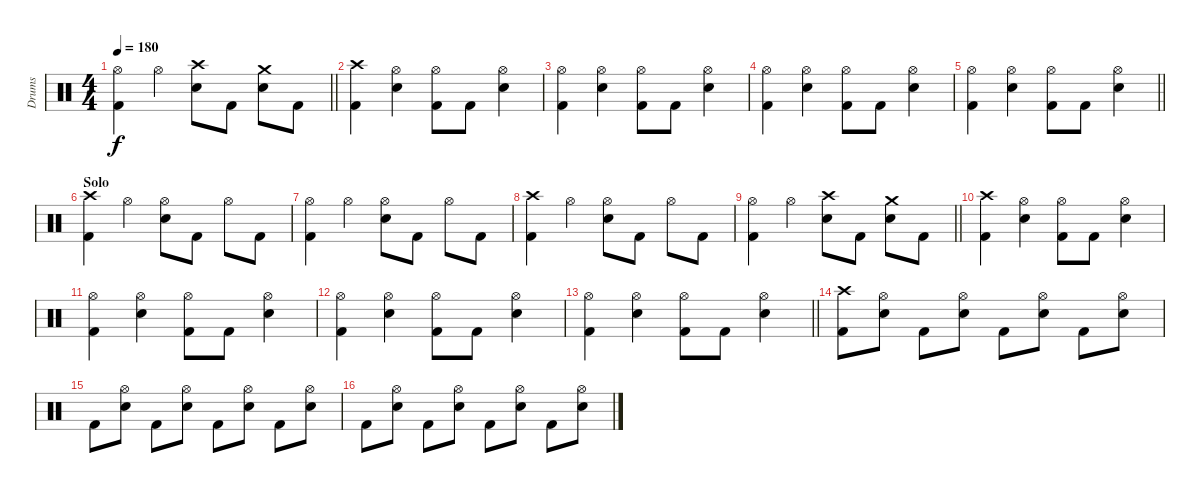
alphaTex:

\track ("Drums" "Drums") {instrument percussion}
\staff {score}
\articulation defaults
\ts (4 4)
\tempo 180
\clef neutral
\barLineRight lightlight
\ks c
("Kick (hit) 2" "Hi-Hat (open)").4{dy f} "Hi-Hat (open)".4 ("Electric Snare (hit)" "Crash high (hit)").8 "Kick (hit) 2".8 ("Electric Snare (hit)" "Crash medium (hit)").8 "Kick (hit) 2".8 |
\section ("" "")
("Kick (hit) 2" "Crash high (hit)").4 ("Electric Snare (hit)" "Hi-Hat (open)").4 ("Kick (hit) 2" "Hi-Hat (open)").8 "Kick (hit) 2".8 ("Electric Snare (hit)" "Hi-Hat (open)").4 |
("Kick (hit) 2" "Hi-Hat (open)").4 ("Electric Snare (hit)" "Hi-Hat (open)").4 ("Kick (hit) 2" "Hi-Hat (open)").8 "Kick (hit) 2".8 ("Electric Snare (hit)" "Hi-Hat (open)").4 |
("Kick (hit) 2" "Hi-Hat (open)").4 ("Electric Snare (hit)" "Hi-Hat (open)").4 ("Kick (hit) 2" "Hi-Hat (open)").8 "Kick (hit) 2".8 ("Electric Snare (hit)" "Hi-Hat (open)").4 |
\barLineRight lightlight
("Kick (hit) 2" "Hi-Hat (open)").4 ("Electric Snare (hit)" "Hi-Hat (open)").4 ("Kick (hit) 2" "Hi-Hat (open)").8 "Kick (hit) 2".8 ("Electric Snare (hit)" "Hi-Hat (open)").4 |
\section ("" "Solo")
("Kick (hit) 2" "Crash high (hit)").4 "Hi-Hat (open)".4 ("Electric Snare (hit)" "Hi-Hat (open)").8 "Kick (hit) 2".8 "Hi-Hat (open)".8 "Kick (hit) 2".8 |
("Kick (hit) 2" "Hi-Hat (open)").4 "Hi-Hat (open)".4 ("Electric Snare (hit)" "Hi-Hat (open)").8 "Kick (hit) 2".8 "Hi-Hat (open)".8 "Kick (hit) 2".8 |
("Kick (hit) 2" "Crash high (hit)").4 "Hi-Hat (open)".4 ("Electric Snare (hit)" "Hi-Hat (open)").8 "Kick (hit) 2".8 "Hi-Hat (open)".8 "Kick (hit) 2".8 |
\barLineRight lightlight
("Kick (hit) 2" "Hi-Hat (open)").4 "Hi-Hat (open)".4 ("Electric Snare (hit)" "Crash high (hit)").8 "Kick (hit) 2".8 ("Electric Snare (hit)" "Crash medium (hit)").8 "Kick (hit) 2".8 |
("Kick (hit) 2" "Crash high (hit)").4 ("Electric Snare (hit)" "Hi-Hat (open)").4 ("Kick (hit) 2" "Hi-Hat (open)").8 "Kick (hit) 2".8 ("Electric Snare (hit)" "Hi-Hat (open)").4 |
("Kick (hit) 2" "Hi-Hat (open)").4 ("Electric Snare (hit)" "Hi-Hat (open)").4 ("Kick (hit) 2" "Hi-Hat (open)").8 "Kick (hit) 2".8 ("Electric Snare (hit)" "Hi-Hat (open)").4 |
("Kick (hit) 2" "Hi-Hat (open)").4 ("Electric Snare (hit)" "Hi-Hat (open)").4 ("Kick (hit) 2" "Hi-Hat (open)").8 "Kick (hit) 2".8 ("Electric Snare (hit)" "Hi-Hat (open)").4 |
\barLineRight lightlight
("Kick (hit) 2" "Hi-Hat (open)").4 ("Electric Snare (hit)" "Hi-Hat (open)").4 ("Kick (hit) 2" "Hi-Hat (open)").8 "Kick (hit) 2".8 ("Electric Snare (hit)" "Hi-Hat (open)").4 |
("Kick (hit) 2" "Crash high (hit)").8 ("Electric Snare (hit)" "Hi-Hat (open)").8 "Kick (hit) 2".8 ("Electric Snare (hit)" "Hi-Hat (open)").8 "Kick (hit) 2".8 ("Electric Snare (hit)" "Hi-Hat (open)").8 "Kick (hit) 2".8 ("Electric Snare (hit)" "Hi-Hat (open)").8 |
"Kick (hit) 2".8 ("Electric Snare (hit)" "Hi-Hat (open)").8 "Kick (hit) 2".8 ("Electric Snare (hit)" "Hi-Hat (open)").8 "Kick (hit) 2".8 ("Electric Snare (hit)" "Hi-Hat (open)").8 "Kick (hit) 2".8 ("Electric Snare (hit)" "Hi-Hat (open)").8 |
"Kick (hit) 2".8 ("Electric Snare (hit)" "Hi-Hat (open)").8 "Kick (hit) 2".8 ("Electric Snare (hit)" "Hi-Hat (open)").8 "Kick (hit) 2".8 ("Electric Snare (hit)" "Hi-Hat (open)").8 "Kick (hit) 2".8 ("Electric Snare (hit)" "Hi-Hat (open)").8
